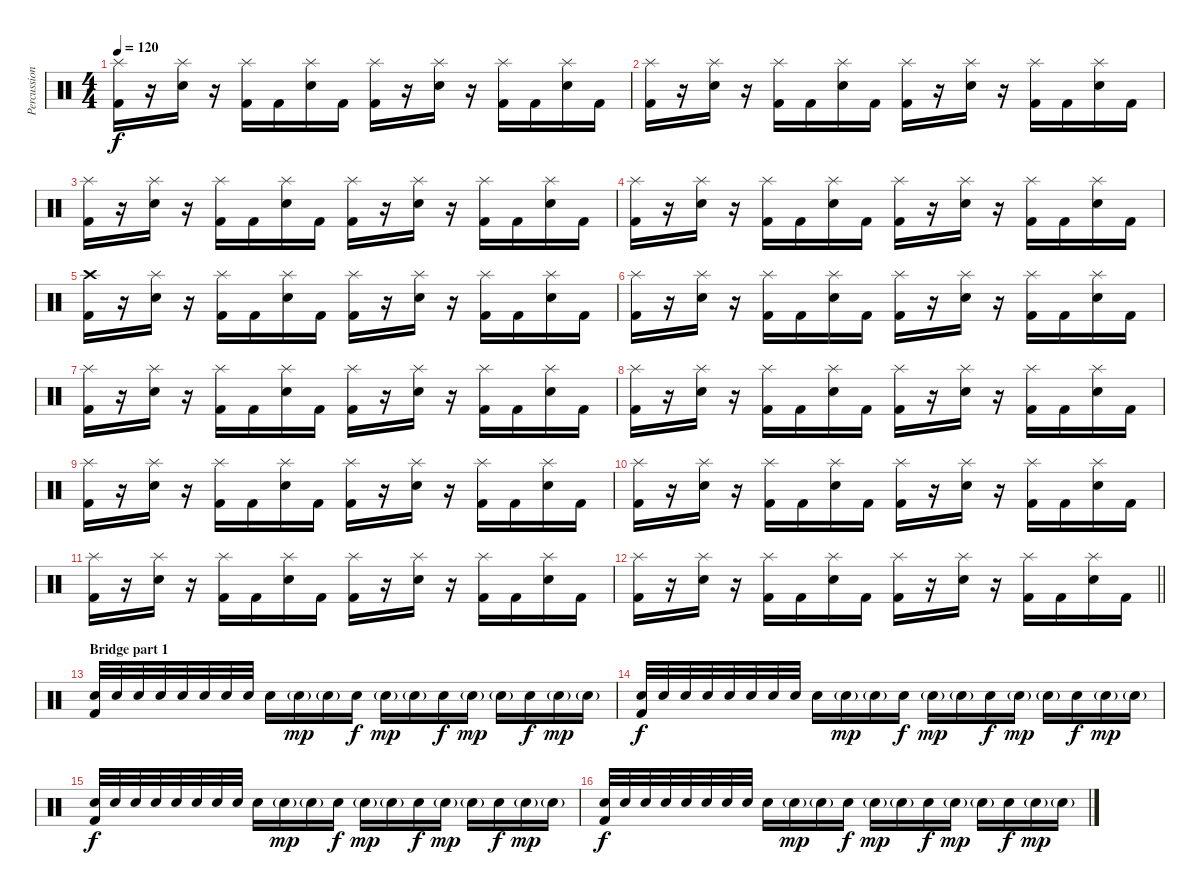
\track ("Percussion" "Percussion") {instrument percussion}
\staff {score}
\articulation defaults
\ts (4 4)
\tempo 120
\clef neutral
\ks c
("Splash (hit)" "Kick (hit) 2").16{dy f} r.16 ("Splash (hit)" "Electric Snare (hit)").16 r.16 ("Splash (hit)" "Kick (hit) 2").16 "Kick (hit) 2".16 ("Splash (hit)" "Electric Snare (hit)").16 "Kick (hit) 2".16 ("Splash (hit)" "Kick (hit) 2").16 r.16 ("Splash (hit)" "Electric Snare (hit)").16 r.16 ("Splash (hit)" "Kick (hit) 2").16 "Kick (hit) 2".16 ("Splash (hit)" "Electric Snare (hit)").16 "Kick (hit) 2".16 |
("Splash (hit)" "Kick (hit) 2").16 r.16 ("Splash (hit)" "Electric Snare (hit)").16 r.16 ("Splash (hit)" "Kick (hit) 2").16 "Kick (hit) 2".16 ("Splash (hit)" "Electric Snare (hit)").16 "Kick (hit) 2".16 ("Splash (hit)" "Kick (hit) 2").16 r.16 ("Splash (hit)" "Electric Snare (hit)").16 r.16 ("Splash (hit)" "Kick (hit) 2").16 "Kick (hit) 2".16 ("Splash (hit)" "Electric Snare (hit)").16 "Kick (hit) 2".16 |
("Splash (hit)" "Kick (hit) 2").16 r.16 ("Splash (hit)" "Electric Snare (hit)").16 r.16 ("Splash (hit)" "Kick (hit) 2").16 "Kick (hit) 2".16 ("Splash (hit)" "Electric Snare (hit)").16 "Kick (hit) 2".16 ("Splash (hit)" "Kick (hit) 2").16 r.16 ("Splash (hit)" "Electric Snare (hit)").16 r.16 ("Splash (hit)" "Kick (hit) 2").16 "Kick (hit) 2".16 ("Splash (hit)" "Electric Snare (hit)").16 "Kick (hit) 2".16 |
("Splash (hit)" "Kick (hit) 2").16 r.16 ("Splash (hit)" "Electric Snare (hit)").16 r.16 ("Splash (hit)" "Kick (hit) 2").16 "Kick (hit) 2".16 ("Splash (hit)" "Electric Snare (hit)").16 "Kick (hit) 2".16 ("Splash (hit)" "Kick (hit) 2").16 r.16 ("Splash (hit)" "Electric Snare (hit)").16 r.16 ("Splash (hit)" "Kick (hit) 2").16 "Kick (hit) 2".16 ("Splash (hit)" "Electric Snare (hit)").16 "Kick (hit) 2".16 |
("Crash high (hit)" "Kick (hit) 2").16 r.16 ("Splash (hit)" "Electric Snare (hit)").16 r.16 ("Splash (hit)" "Kick (hit) 2").16 "Kick (hit) 2".16 ("Splash (hit)" "Electric Snare (hit)").16 "Kick (hit) 2".16 ("Splash (hit)" "Kick (hit) 2").16 r.16 ("Splash (hit)" "Electric Snare (hit)").16 r.16 ("Splash (hit)" "Kick (hit) 2").16 "Kick (hit) 2".16 ("Splash (hit)" "Electric Snare (hit)").16 "Kick (hit) 2".16 |
("Splash (hit)" "Kick (hit) 2").16 r.16 ("Splash (hit)" "Electric Snare (hit)").16 r.16 ("Splash (hit)" "Kick (hit) 2").16 "Kick (hit) 2".16 ("Splash (hit)" "Electric Snare (hit)").16 "Kick (hit) 2".16 ("Splash (hit)" "Kick (hit) 2").16 r.16 ("Splash (hit)" "Electric Snare (hit)").16 r.16 ("Splash (hit)" "Kick (hit) 2").16 "Kick (hit) 2".16 ("Splash (hit)" "Electric Snare (hit)").16 "Kick (hit) 2".16 |
("Splash (hit)" "Kick (hit) 2").16 r.16 ("Splash (hit)" "Electric Snare (hit)").16 r.16 ("Splash (hit)" "Kick (hit) 2").16 "Kick (hit) 2".16 ("Splash (hit)" "Electric Snare (hit)").16 "Kick (hit) 2".16 ("Splash (hit)" "Kick (hit) 2").16 r.16 ("Splash (hit)" "Electric Snare (hit)").16 r.16 ("Splash (hit)" "Kick (hit) 2").16 "Kick (hit) 2".16 ("Splash (hit)" "Electric Snare (hit)").16 "Kick (hit) 2".16 |
("Splash (hit)" "Kick (hit) 2").16 r.16 ("Splash (hit)" "Electric Snare (hit)").16 r.16 ("Splash (hit)" "Kick (hit) 2").16 "Kick (hit) 2".16 ("Splash (hit)" "Electric Snare (hit)").16 "Kick (hit) 2".16 ("Splash (hit)" "Kick (hit) 2").16 r.16 ("Splash (hit)" "Electric Snare (hit)").16 r.16 ("Splash (hit)" "Kick (hit) 2").16 "Kick (hit) 2".16 ("Splash (hit)" "Electric Snare (hit)").16 "Kick (hit) 2".16 |
("Splash (hit)" "Kick (hit) 2").16 r.16 ("Splash (hit)" "Electric Snare (hit)").16 r.16 ("Splash (hit)" "Kick (hit) 2").16 "Kick (hit) 2".16 ("Splash (hit)" "Electric Snare (hit)").16 "Kick (hit) 2".16 ("Splash (hit)" "Kick (hit) 2").16 r.16 ("Splash (hit)" "Electric Snare (hit)").16 r.16 ("Splash (hit)" "Kick (hit) 2").16 "Kick (hit) 2".16 ("Splash (hit)" "Electric Snare (hit)").16 "Kick (hit) 2".16 |
("Splash (hit)" "Kick (hit) 2").16 r.16 ("Splash (hit)" "Electric Snare (hit)").16 r.16 ("Splash (hit)" "Kick (hit) 2").16 "Kick (hit) 2".16 ("Splash (hit)" "Electric Snare (hit)").16 "Kick (hit) 2".16 ("Splash (hit)" "Kick (hit) 2").16 r.16 ("Splash (hit)" "Electric Snare (hit)").16 r.16 ("Splash (hit)" "Kick (hit) 2").16 "Kick (hit) 2".16 ("Splash (hit)" "Electric Snare (hit)").16 "Kick (hit) 2".16 |
("Splash (hit)" "Kick (hit) 2").16 r.16 ("Splash (hit)" "Electric Snare (hit)").16 r.16 ("Splash (hit)" "Kick (hit) 2").16 "Kick (hit) 2".16 ("Splash (hit)" "Electric Snare (hit)").16 "Kick (hit) 2".16 ("Splash (hit)" "Kick (hit) 2").16 r.16 ("Splash (hit)" "Electric Snare (hit)").16 r.16 ("Splash (hit)" "Kick (hit) 2").16 "Kick (hit) 2".16 ("Splash (hit)" "Electric Snare (hit)").16 "Kick (hit) 2".16 |
\barLineRight lightlight
("Splash (hit)" "Kick (hit) 2").16 r.16 ("Splash (hit)" "Electric Snare (hit)").16 r.16 ("Splash (hit)" "Kick (hit) 2").16 "Kick (hit) 2".16 ("Splash (hit)" "Electric Snare (hit)").16 "Kick (hit) 2".16 ("Splash (hit)" "Kick (hit) 2").16 r.16 ("Splash (hit)" "Electric Snare (hit)").16 r.16 ("Splash (hit)" "Kick (hit) 2").16 "Kick (hit) 2".16 ("Splash (hit)" "Electric Snare (hit)").16 "Kick (hit) 2".16 |
\section ("" "Bridge part 1")
("Electric Snare (hit)" "Kick (hit) 2").32 "Electric Snare (hit)".32 "Electric Snare (hit)".32 "Electric Snare (hit)".32 "Electric Snare (hit)".32 "Electric Snare (hit)".32 "Electric Snare (hit)".32 "Electric Snare (hit)".32 "Electric Snare (hit)".16 "Electric Snare (hit)"{g}.16{dy mp} "Electric Snare (hit)"{g}.16 "Electric Snare (hit)".16{dy f} "Electric Snare (hit)"{g}.16{dy mp} "Electric Snare (hit)"{g}.16 "Electric Snare (hit)".16{dy f} "Electric Snare (hit)"{g}.16{dy mp} "Electric Snare (hit)"{g}.16 "Electric Snare (hit)".16{dy f} "Electric Snare (hit)"{g}.16{dy mp} "Electric Snare (hit)"{g}.16 |
("Electric Snare (hit)" "Kick (hit) 2").32{dy f} "Electric Snare (hit)".32 "Electric Snare (hit)".32 "Electric Snare (hit)".32 "Electric Snare (hit)".32 "Electric Snare (hit)".32 "Electric Snare (hit)".32 "Electric Snare (hit)".32 "Electric Snare (hit)".16 "Electric Snare (hit)"{g}.16{dy mp} "Electric Snare (hit)"{g}.16 "Electric Snare (hit)".16{dy f} "Electric Snare (hit)"{g}.16{dy mp} "Electric Snare (hit)"{g}.16 "Electric Snare (hit)".16{dy f} "Electric Snare (hit)"{g}.16{dy mp} "Electric Snare (hit)"{g}.16 "Electric Snare (hit)".16{dy f} "Electric Snare (hit)"{g}.16{dy mp} "Electric Snare (hit)"{g}.16 |
("Electric Snare (hit)" "Kick (hit) 2").32{dy f} "Electric Snare (hit)".32 "Electric Snare (hit)".32 "Electric Snare (hit)".32 "Electric Snare (hit)".32 "Electric Snare (hit)".32 "Electric Snare (hit)".32 "Electric Snare (hit)".32 "Electric Snare (hit)".16 "Electric Snare (hit)"{g}.16{dy mp} "Electric Snare (hit)"{g}.16 "Electric Snare (hit)".16{dy f} "Electric Snare (hit)"{g}.16{dy mp} "Electric Snare (hit)"{g}.16 "Electric Snare (hit)".16{dy f} "Electric Snare (hit)"{g}.16{dy mp} "Electric Snare (hit)"{g}.16 "Electric Snare (hit)".16{dy f} "Electric Snare (hit)"{g}.16{dy mp} "Electric Snare (hit)"{g}.16 |
("Electric Snare (hit)" "Kick (hit) 2").32{dy f} "Electric Snare (hit)".32 "Electric Snare (hit)".32 "Electric Snare (hit)".32 "Electric Snare (hit)".32 "Electric Snare (hit)".32 "Electric Snare (hit)".32 "Electric Snare (hit)".32 "Electric Snare (hit)".16 "Electric Snare (hit)"{g}.16{dy mp} "Electric Snare (hit)"{g}.16 "Electric Snare (hit)".16{dy f} "Electric Snare (hit)"{g}.16{dy mp} "Electric Snare (hit)"{g}.16 "Electric Snare (hit)".16{dy f} "Electric Snare (hit)"{g}.16{dy mp} "Electric Snare (hit)"{g}.16 "Electric Snare (hit)".16{dy f} "Electric Snare (hit)"{g}.16{dy mp} "Electric Snare (hit)"{g}.16
